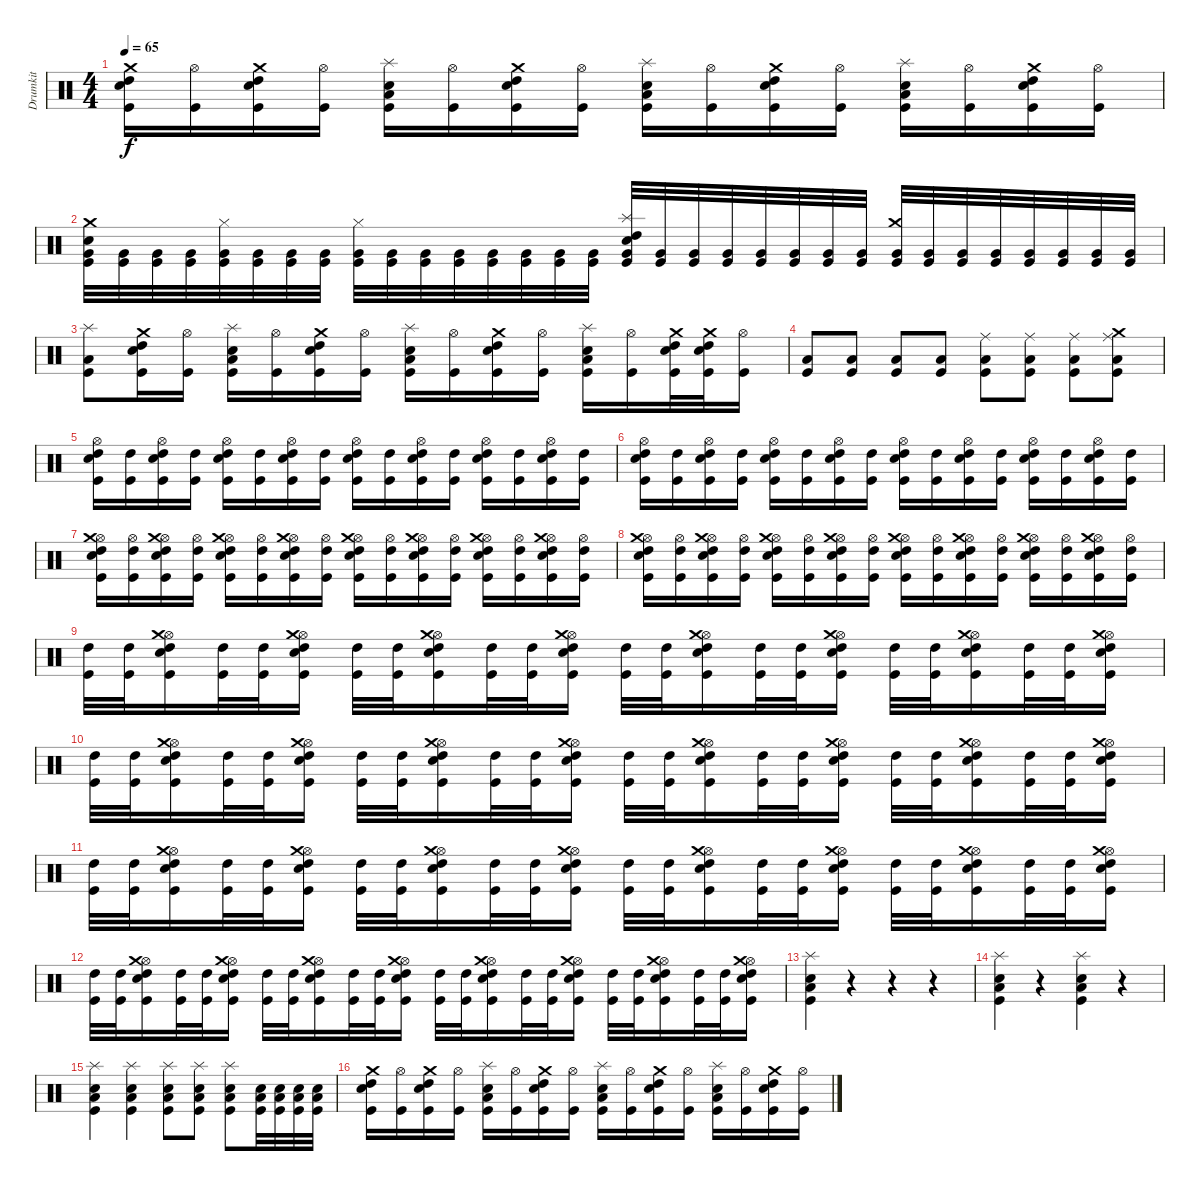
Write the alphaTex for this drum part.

\track ("Drumkit" "Drumkit") {instrument percussion}
\staff {score}
\articulation defaults
\ts (4 4)
\tempo 65
\clef neutral
\ks c
("Kick (hit)" "Snare (hit) 2" "High Tom (hit)" "Crash medium (hit)").16{dy f} ("Kick (hit)" "Hi-Hat (open)").16 ("Kick (hit)" "Snare (hit) 2" "High Tom (hit)" "Crash medium (hit)").16 ("Kick (hit)" "Hi-Hat (open)").16 ("Kick (hit)" "Low Tom (hit)" "Splash (hit)" "Snare (hit) 2").16 ("Kick (hit)" "Hi-Hat (open)").16 ("Kick (hit)" "Snare (hit) 2" "High Tom (hit)" "Crash medium (hit)").16 ("Kick (hit)" "Hi-Hat (open)").16 ("Kick (hit)" "Low Tom (hit)" "Splash (hit)" "Snare (hit) 2").16 ("Kick (hit)" "Hi-Hat (open)").16 ("Kick (hit)" "Snare (hit) 2" "High Tom (hit)" "Crash medium (hit)").16 ("Kick (hit)" "Hi-Hat (open)").16 ("Kick (hit)" "Low Tom (hit)" "Splash (hit)" "Snare (hit) 2").16 ("Kick (hit)" "Hi-Hat (open)").16 ("Kick (hit)" "Snare (hit) 2" "High Tom (hit)" "Crash medium (hit)").16 ("Kick (hit)" "Hi-Hat (open)").16 |
("Kick (hit)" "Very Low Tom (hit)" "Snare (hit) 2" "Crash medium (hit)").32 ("Kick (hit)" "Very Low Tom (hit)").32 ("Kick (hit)" "Very Low Tom (hit)").32 ("Kick (hit)" "Very Low Tom (hit)").32 ("Kick (hit)" "Very Low Tom (hit)" "Hi-Hat (closed)").32 ("Kick (hit)" "Very Low Tom (hit)").32 ("Kick (hit)" "Very Low Tom (hit)").32 ("Kick (hit)" "Very Low Tom (hit)").32 ("Kick (hit)" "Very Low Tom (hit)" "Hi-Hat (closed)").32 ("Kick (hit)" "Very Low Tom (hit)").32 ("Kick (hit)" "Very Low Tom (hit)").32 ("Kick (hit)" "Very Low Tom (hit)").32 ("Kick (hit)" "Very Low Tom (hit)").32 ("Kick (hit)" "Very Low Tom (hit)").32 ("Kick (hit)" "Very Low Tom (hit)").32 ("Kick (hit)" "Very Low Tom (hit)").32 ("Kick (hit)" "Very Low Tom (hit)" "Snare (hit) 2" "High Tom (hit)" "Splash (hit)").32 ("Kick (hit)" "Very Low Tom (hit)").32 ("Kick (hit)" "Very Low Tom (hit)").32 ("Kick (hit)" "Very Low Tom (hit)").32 ("Kick (hit)" "Very Low Tom (hit)").32 ("Kick (hit)" "Very Low Tom (hit)").32 ("Kick (hit)" "Very Low Tom (hit)").32 ("Kick (hit)" "Very Low Tom (hit)").32 ("Kick (hit)" "Very Low Tom (hit)" "Crash medium (hit)").32 ("Kick (hit)" "Very Low Tom (hit)").32 ("Kick (hit)" "Very Low Tom (hit)").32 ("Kick (hit)" "Very Low Tom (hit)").32 ("Kick (hit)" "Very Low Tom (hit)").32 ("Kick (hit)" "Very Low Tom (hit)").32 ("Kick (hit)" "Very Low Tom (hit)").32 ("Kick (hit)" "Very Low Tom (hit)").32 |
("Splash (hit)" "Kick (hit)" "Low Tom (hit)").8 ("Kick (hit)" "Snare (hit) 2" "High Tom (hit)" "Crash medium (hit)").16 ("Kick (hit)" "Hi-Hat (open)").16 ("Kick (hit)" "Low Tom (hit)" "Splash (hit)" "Snare (hit) 2").16 ("Kick (hit)" "Hi-Hat (open)").16 ("Kick (hit)" "Snare (hit) 2" "High Tom (hit)" "Crash medium (hit)").16 ("Kick (hit)" "Hi-Hat (open)").16 ("Kick (hit)" "Low Tom (hit)" "Splash (hit)" "Snare (hit) 2").16 ("Kick (hit)" "Hi-Hat (open)").16 ("Kick (hit)" "Snare (hit) 2" "High Tom (hit)" "Crash medium (hit)").16 ("Kick (hit)" "Hi-Hat (open)").16 ("Kick (hit)" "Low Tom (hit)" "Splash (hit)" "Snare (hit) 2").16 ("Kick (hit)" "Hi-Hat (open)").16 ("Kick (hit)" "Snare (hit) 2" "High Tom (hit)" "Crash medium (hit)").32 ("Kick (hit)" "Snare (hit) 2" "High Tom (hit)" "Crash medium (hit)").32 ("Kick (hit)" "Hi-Hat (open)").16 |
("Kick (hit)" "Low Tom (hit)").8 ("Kick (hit)" "Low Tom (hit)").8 ("Kick (hit)" "Low Tom (hit)").8 ("Kick (hit)" "Low Tom (hit)").8 ("Kick (hit)" "Low Tom (hit)" "Ride (middle)").8 ("Kick (hit)" "Low Tom (hit)" "Ride (middle)").8 ("Kick (hit)" "Low Tom (hit)" "Ride (middle)").8 ("Kick (hit)" "Low Tom (hit)" "Ride (middle)" "Crash medium (hit)").8 |
("Kick (hit)" "Snare (hit) 2" "Hi-Hat (open)" "High Tom (hit)").16 ("Kick (hit)" "High Tom (hit)").16 ("Kick (hit)" "Snare (hit) 2" "Hi-Hat (open)" "High Tom (hit)").16 ("Kick (hit)" "High Tom (hit)").16 ("Kick (hit)" "Snare (hit) 2" "Hi-Hat (open)" "High Tom (hit)").16 ("Kick (hit)" "High Tom (hit)").16 ("Kick (hit)" "Snare (hit) 2" "Hi-Hat (open)" "High Tom (hit)").16 ("Kick (hit)" "High Tom (hit)").16 ("Kick (hit)" "Snare (hit) 2" "Hi-Hat (open)" "High Tom (hit)").16 ("Kick (hit)" "High Tom (hit)").16 ("Kick (hit)" "Snare (hit) 2" "Hi-Hat (open)" "High Tom (hit)").16 ("Kick (hit)" "High Tom (hit)").16 ("Kick (hit)" "Snare (hit) 2" "Hi-Hat (open)" "High Tom (hit)").16 ("Kick (hit)" "High Tom (hit)").16 ("Kick (hit)" "Snare (hit) 2" "Hi-Hat (open)" "High Tom (hit)").16 ("Kick (hit)" "High Tom (hit)").16 |
("Kick (hit)" "Snare (hit) 2" "Hi-Hat (open)" "High Tom (hit)").16 ("Kick (hit)" "High Tom (hit)").16 ("Kick (hit)" "Snare (hit) 2" "Hi-Hat (open)" "High Tom (hit)").16 ("Kick (hit)" "High Tom (hit)").16 ("Kick (hit)" "Snare (hit) 2" "Hi-Hat (open)" "High Tom (hit)").16 ("Kick (hit)" "High Tom (hit)").16 ("Kick (hit)" "Snare (hit) 2" "Hi-Hat (open)" "High Tom (hit)").16 ("Kick (hit)" "High Tom (hit)").16 ("Kick (hit)" "Snare (hit) 2" "Hi-Hat (open)" "High Tom (hit)").16 ("Kick (hit)" "High Tom (hit)").16 ("Kick (hit)" "Snare (hit) 2" "Hi-Hat (open)" "High Tom (hit)").16 ("Kick (hit)" "High Tom (hit)").16 ("Kick (hit)" "Snare (hit) 2" "Hi-Hat (open)" "High Tom (hit)").16 ("Kick (hit)" "High Tom (hit)").16 ("Kick (hit)" "Snare (hit) 2" "Hi-Hat (open)" "High Tom (hit)").16 ("Kick (hit)" "High Tom (hit)").16 |
("Kick (hit)" "Snare (hit) 2" "Hi-Hat (open)" "High Tom (hit)" "Crash medium (hit)").16 ("Kick (hit)" "High Tom (hit)" "Hi-Hat (open)").16 ("Kick (hit)" "Snare (hit) 2" "Hi-Hat (open)" "High Tom (hit)" "Crash medium (hit)").16 ("Kick (hit)" "High Tom (hit)" "Hi-Hat (open)").16 ("Kick (hit)" "Snare (hit) 2" "Hi-Hat (open)" "High Tom (hit)" "Crash medium (hit)").16 ("Kick (hit)" "High Tom (hit)" "Hi-Hat (open)").16 ("Kick (hit)" "Snare (hit) 2" "Hi-Hat (open)" "High Tom (hit)" "Crash medium (hit)").16 ("Kick (hit)" "High Tom (hit)" "Hi-Hat (open)").16 ("Kick (hit)" "Snare (hit) 2" "Hi-Hat (open)" "High Tom (hit)" "Crash medium (hit)").16 ("Kick (hit)" "High Tom (hit)" "Hi-Hat (open)").16 ("Kick (hit)" "Snare (hit) 2" "Hi-Hat (open)" "High Tom (hit)" "Crash medium (hit)").16 ("Kick (hit)" "High Tom (hit)" "Hi-Hat (open)").16 ("Kick (hit)" "Snare (hit) 2" "Hi-Hat (open)" "High Tom (hit)" "Crash medium (hit)").16 ("Kick (hit)" "High Tom (hit)" "Hi-Hat (open)").16 ("Kick (hit)" "Snare (hit) 2" "Hi-Hat (open)" "High Tom (hit)" "Crash medium (hit)").16 ("Kick (hit)" "High Tom (hit)" "Hi-Hat (open)").16 |
("Kick (hit)" "Snare (hit) 2" "Hi-Hat (open)" "High Tom (hit)" "Crash medium (hit)").16 ("Kick (hit)" "High Tom (hit)" "Hi-Hat (open)").16 ("Kick (hit)" "Snare (hit) 2" "Hi-Hat (open)" "High Tom (hit)" "Crash medium (hit)").16 ("Kick (hit)" "High Tom (hit)" "Hi-Hat (open)").16 ("Kick (hit)" "Snare (hit) 2" "Hi-Hat (open)" "High Tom (hit)" "Crash medium (hit)").16 ("Kick (hit)" "High Tom (hit)" "Hi-Hat (open)").16 ("Kick (hit)" "Snare (hit) 2" "Hi-Hat (open)" "High Tom (hit)" "Crash medium (hit)").16 ("Kick (hit)" "High Tom (hit)" "Hi-Hat (open)").16 ("Kick (hit)" "Snare (hit) 2" "Hi-Hat (open)" "High Tom (hit)" "Crash medium (hit)").16 ("Kick (hit)" "High Tom (hit)" "Hi-Hat (open)").16 ("Kick (hit)" "Snare (hit) 2" "Hi-Hat (open)" "High Tom (hit)" "Crash medium (hit)").16 ("Kick (hit)" "High Tom (hit)" "Hi-Hat (open)").16 ("Kick (hit)" "Snare (hit) 2" "Hi-Hat (open)" "High Tom (hit)" "Crash medium (hit)").16 ("Kick (hit)" "High Tom (hit)" "Hi-Hat (open)").16 ("Kick (hit)" "Snare (hit) 2" "Hi-Hat (open)" "High Tom (hit)" "Crash medium (hit)").16 ("Kick (hit)" "High Tom (hit)" "Hi-Hat (open)").16 |
("Kick (hit)" "High Tom (hit)").32 ("Kick (hit)" "High Tom (hit)").32 ("Kick (hit)" "Snare (hit) 2" "Hi-Hat (open)" "High Tom (hit)" "Crash medium (hit)").16 ("Kick (hit)" "High Tom (hit)").32 ("Kick (hit)" "High Tom (hit)").32 ("Kick (hit)" "Snare (hit) 2" "Hi-Hat (open)" "High Tom (hit)" "Crash medium (hit)").16 ("Kick (hit)" "High Tom (hit)").32 ("Kick (hit)" "High Tom (hit)").32 ("Kick (hit)" "Snare (hit) 2" "Hi-Hat (open)" "High Tom (hit)" "Crash medium (hit)").16 ("Kick (hit)" "High Tom (hit)").32 ("Kick (hit)" "High Tom (hit)").32 ("Kick (hit)" "Snare (hit) 2" "Hi-Hat (open)" "High Tom (hit)" "Crash medium (hit)").16 ("Kick (hit)" "High Tom (hit)").32 ("Kick (hit)" "High Tom (hit)").32 ("Kick (hit)" "Snare (hit) 2" "Hi-Hat (open)" "High Tom (hit)" "Crash medium (hit)").16 ("Kick (hit)" "High Tom (hit)").32 ("Kick (hit)" "High Tom (hit)").32 ("Kick (hit)" "Snare (hit) 2" "Hi-Hat (open)" "High Tom (hit)" "Crash medium (hit)").16 ("Kick (hit)" "High Tom (hit)").32 ("Kick (hit)" "High Tom (hit)").32 ("Kick (hit)" "Snare (hit) 2" "Hi-Hat (open)" "High Tom (hit)" "Crash medium (hit)").16 ("Kick (hit)" "High Tom (hit)").32 ("Kick (hit)" "High Tom (hit)").32 ("Kick (hit)" "Snare (hit) 2" "Hi-Hat (open)" "High Tom (hit)" "Crash medium (hit)").16 |
("Kick (hit)" "High Tom (hit)").32 ("Kick (hit)" "High Tom (hit)").32 ("Kick (hit)" "Snare (hit) 2" "Hi-Hat (open)" "High Tom (hit)" "Crash medium (hit)").16 ("Kick (hit)" "High Tom (hit)").32 ("Kick (hit)" "High Tom (hit)").32 ("Kick (hit)" "Snare (hit) 2" "Hi-Hat (open)" "High Tom (hit)" "Crash medium (hit)").16 ("Kick (hit)" "High Tom (hit)").32 ("Kick (hit)" "High Tom (hit)").32 ("Kick (hit)" "Snare (hit) 2" "Hi-Hat (open)" "High Tom (hit)" "Crash medium (hit)").16 ("Kick (hit)" "High Tom (hit)").32 ("Kick (hit)" "High Tom (hit)").32 ("Kick (hit)" "Snare (hit) 2" "Hi-Hat (open)" "High Tom (hit)" "Crash medium (hit)").16 ("Kick (hit)" "High Tom (hit)").32 ("Kick (hit)" "High Tom (hit)").32 ("Kick (hit)" "Snare (hit) 2" "Hi-Hat (open)" "High Tom (hit)" "Crash medium (hit)").16 ("Kick (hit)" "High Tom (hit)").32 ("Kick (hit)" "High Tom (hit)").32 ("Kick (hit)" "Snare (hit) 2" "Hi-Hat (open)" "High Tom (hit)" "Crash medium (hit)").16 ("Kick (hit)" "High Tom (hit)").32 ("Kick (hit)" "High Tom (hit)").32 ("Kick (hit)" "Snare (hit) 2" "Hi-Hat (open)" "High Tom (hit)" "Crash medium (hit)").16 ("Kick (hit)" "High Tom (hit)").32 ("Kick (hit)" "High Tom (hit)").32 ("Kick (hit)" "Snare (hit) 2" "Hi-Hat (open)" "High Tom (hit)" "Crash medium (hit)").16 |
("Kick (hit)" "High Tom (hit)").32 ("Kick (hit)" "High Tom (hit)").32 ("Kick (hit)" "Snare (hit) 2" "Hi-Hat (open)" "High Tom (hit)" "Crash medium (hit)").16 ("Kick (hit)" "High Tom (hit)").32 ("Kick (hit)" "High Tom (hit)").32 ("Kick (hit)" "Snare (hit) 2" "Hi-Hat (open)" "High Tom (hit)" "Crash medium (hit)").16 ("Kick (hit)" "High Tom (hit)").32 ("Kick (hit)" "High Tom (hit)").32 ("Kick (hit)" "Snare (hit) 2" "Hi-Hat (open)" "High Tom (hit)" "Crash medium (hit)").16 ("Kick (hit)" "High Tom (hit)").32 ("Kick (hit)" "High Tom (hit)").32 ("Kick (hit)" "Snare (hit) 2" "Hi-Hat (open)" "High Tom (hit)" "Crash medium (hit)").16 ("Kick (hit)" "High Tom (hit)").32 ("Kick (hit)" "High Tom (hit)").32 ("Kick (hit)" "Snare (hit) 2" "Hi-Hat (open)" "High Tom (hit)" "Crash medium (hit)").16 ("Kick (hit)" "High Tom (hit)").32 ("Kick (hit)" "High Tom (hit)").32 ("Kick (hit)" "Snare (hit) 2" "Hi-Hat (open)" "High Tom (hit)" "Crash medium (hit)").16 ("Kick (hit)" "High Tom (hit)").32 ("Kick (hit)" "High Tom (hit)").32 ("Kick (hit)" "Snare (hit) 2" "Hi-Hat (open)" "High Tom (hit)" "Crash medium (hit)").16 ("Kick (hit)" "High Tom (hit)").32 ("Kick (hit)" "High Tom (hit)").32 ("Kick (hit)" "Snare (hit) 2" "Hi-Hat (open)" "High Tom (hit)" "Crash medium (hit)").16 |
("Kick (hit)" "High Tom (hit)").32 ("Kick (hit)" "High Tom (hit)").32 ("Kick (hit)" "Snare (hit) 2" "Hi-Hat (open)" "High Tom (hit)" "Crash medium (hit)").16 ("Kick (hit)" "High Tom (hit)").32 ("Kick (hit)" "High Tom (hit)").32 ("Kick (hit)" "Snare (hit) 2" "Hi-Hat (open)" "High Tom (hit)" "Crash medium (hit)").16 ("Kick (hit)" "High Tom (hit)").32 ("Kick (hit)" "High Tom (hit)").32 ("Kick (hit)" "Snare (hit) 2" "Hi-Hat (open)" "High Tom (hit)" "Crash medium (hit)").16 ("Kick (hit)" "High Tom (hit)").32 ("Kick (hit)" "High Tom (hit)").32 ("Kick (hit)" "Snare (hit) 2" "Hi-Hat (open)" "High Tom (hit)" "Crash medium (hit)").16 ("Kick (hit)" "High Tom (hit)").32 ("Kick (hit)" "High Tom (hit)").32 ("Kick (hit)" "Snare (hit) 2" "Hi-Hat (open)" "High Tom (hit)" "Crash medium (hit)").16 ("Kick (hit)" "High Tom (hit)").32 ("Kick (hit)" "High Tom (hit)").32 ("Kick (hit)" "Snare (hit) 2" "Hi-Hat (open)" "High Tom (hit)" "Crash medium (hit)").16 ("Kick (hit)" "High Tom (hit)").32 ("Kick (hit)" "High Tom (hit)").32 ("Kick (hit)" "Snare (hit) 2" "Hi-Hat (open)" "High Tom (hit)" "Crash medium (hit)").16 ("Kick (hit)" "High Tom (hit)").32 ("Kick (hit)" "High Tom (hit)").32 ("Kick (hit)" "Snare (hit) 2" "Hi-Hat (open)" "High Tom (hit)" "Crash medium (hit)").16 |
("Kick (hit)" "Low Tom (hit)" "Snare (hit) 2" "Splash (hit)").4 r.4 r.4 r.4 |
("Kick (hit)" "Low Tom (hit)" "Snare (hit) 2" "Splash (hit)").4 r.4 ("Kick (hit)" "Low Tom (hit)" "Snare (hit) 2" "Splash (hit)").4 r.4 |
("Kick (hit)" "Low Tom (hit)" "Snare (hit) 2" "Splash (hit)").4 ("Kick (hit)" "Low Tom (hit)" "Snare (hit) 2" "Splash (hit)").4 ("Kick (hit)" "Low Tom (hit)" "Snare (hit) 2" "Splash (hit)").8 ("Kick (hit)" "Low Tom (hit)" "Snare (hit) 2" "Splash (hit)").8 ("Kick (hit)" "Low Tom (hit)" "Snare (hit) 2" "Splash (hit)").8 ("Kick (hit)" "Low Tom (hit)" "Snare (hit) 2").32 ("Kick (hit)" "Low Tom (hit)" "Snare (hit) 2").32 ("Kick (hit)" "Low Tom (hit)" "Snare (hit) 2").32 ("Kick (hit)" "Low Tom (hit)" "Snare (hit) 2").32 |
("Kick (hit)" "Snare (hit) 2" "High Tom (hit)" "Crash medium (hit)").16 ("Kick (hit)" "Hi-Hat (open)").16 ("Kick (hit)" "Snare (hit) 2" "High Tom (hit)" "Crash medium (hit)").16 ("Kick (hit)" "Hi-Hat (open)").16 ("Kick (hit)" "Low Tom (hit)" "Splash (hit)" "Snare (hit) 2").16 ("Kick (hit)" "Hi-Hat (open)").16 ("Kick (hit)" "Snare (hit) 2" "High Tom (hit)" "Crash medium (hit)").16 ("Kick (hit)" "Hi-Hat (open)").16 ("Kick (hit)" "Low Tom (hit)" "Splash (hit)" "Snare (hit) 2").16 ("Kick (hit)" "Hi-Hat (open)").16 ("Kick (hit)" "Snare (hit) 2" "High Tom (hit)" "Crash medium (hit)").16 ("Kick (hit)" "Hi-Hat (open)").16 ("Kick (hit)" "Low Tom (hit)" "Splash (hit)" "Snare (hit) 2").16 ("Kick (hit)" "Hi-Hat (open)").16 ("Kick (hit)" "Snare (hit) 2" "High Tom (hit)" "Crash medium (hit)").16 ("Kick (hit)" "Hi-Hat (open)").16
